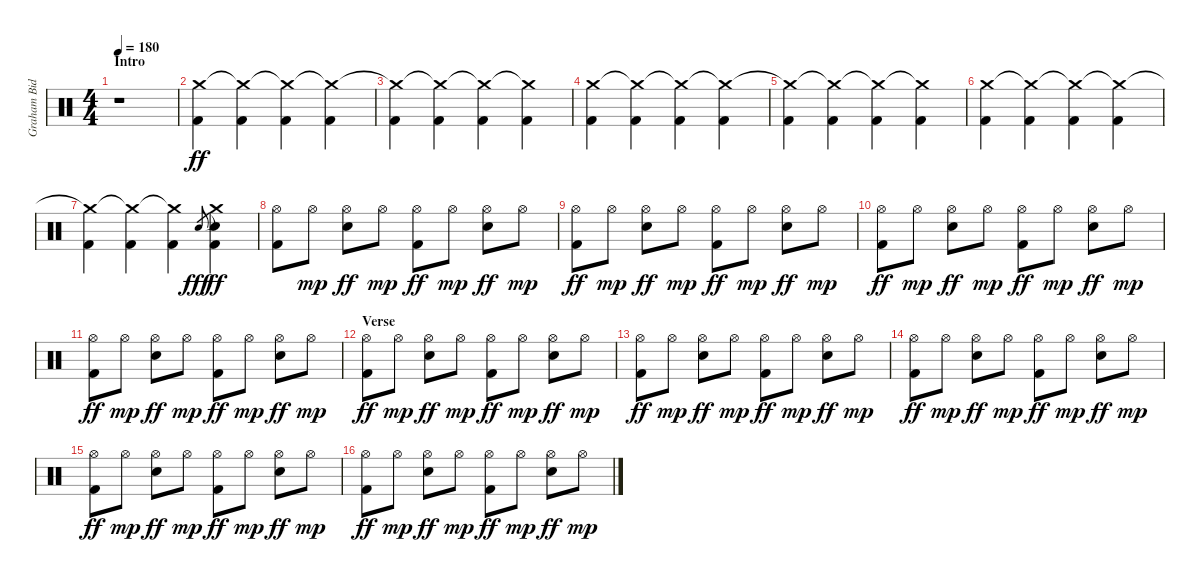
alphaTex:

\track ("Graham Bidstrup" "Graham Bid") {instrument percussion}
\staff {score}
\articulation defaults
\ts (4 4)
\section ("" "Intro")
\tempo 180
\clef neutral
\ks c
r.1{dy ff} |
("Crash medium (hit)" "Kick (hit) 2").4 ("Crash medium (hit)"{t} "Kick (hit) 2").4 ("Crash medium (hit)"{t} "Kick (hit) 2").4 ("Crash medium (hit)"{t} "Kick (hit) 2").4 |
("Crash medium (hit)"{t} "Kick (hit) 2").4 ("Crash medium (hit)"{t} "Kick (hit) 2").4 ("Crash medium (hit)"{t} "Kick (hit) 2").4 ("Crash medium (hit)"{t} "Kick (hit) 2").4 |
("Crash medium (hit)" "Kick (hit) 2").4 ("Crash medium (hit)"{t} "Kick (hit) 2").4 ("Crash medium (hit)"{t} "Kick (hit) 2").4 ("Crash medium (hit)"{t} "Kick (hit) 2").4 |
("Crash medium (hit)"{t} "Kick (hit) 2").4 ("Crash medium (hit)"{t} "Kick (hit) 2").4 ("Crash medium (hit)"{t} "Kick (hit) 2").4 ("Crash medium (hit)"{t} "Kick (hit) 2").4 |
("Crash medium (hit)" "Kick (hit) 2").4 ("Crash medium (hit)"{t} "Kick (hit) 2").4 ("Crash medium (hit)"{t} "Kick (hit) 2").4 ("Crash medium (hit)"{t} "Kick (hit) 2").4 |
("Crash medium (hit)"{t} "Kick (hit) 2").4 ("Crash medium (hit)"{t} "Kick (hit) 2").4 ("Crash medium (hit)"{t} "Kick (hit) 2").4 "Snare (hit) 2".8{gr dy fff} ("Crash medium (hit)"{t} "Snare (hit) 2" "Kick (hit) 2").4{dy ff} |
("Hi-Hat (open)" "Kick (hit) 2").8 "Hi-Hat (open)".8{dy mp} ("Hi-Hat (open)" "Snare (hit) 2").8{dy ff} "Hi-Hat (open)".8{dy mp} ("Hi-Hat (open)" "Kick (hit) 2").8{dy ff} "Hi-Hat (open)".8{dy mp} ("Hi-Hat (open)" "Snare (hit) 2").8{dy ff} "Hi-Hat (open)".8{dy mp} |
("Hi-Hat (open)" "Kick (hit) 2").8{dy ff} "Hi-Hat (open)".8{dy mp} ("Hi-Hat (open)" "Snare (hit) 2").8{dy ff} "Hi-Hat (open)".8{dy mp} ("Hi-Hat (open)" "Kick (hit) 2").8{dy ff} "Hi-Hat (open)".8{dy mp} ("Hi-Hat (open)" "Snare (hit) 2").8{dy ff} "Hi-Hat (open)".8{dy mp} |
("Hi-Hat (open)" "Kick (hit) 2").8{dy ff} "Hi-Hat (open)".8{dy mp} ("Hi-Hat (open)" "Snare (hit) 2").8{dy ff} "Hi-Hat (open)".8{dy mp} ("Hi-Hat (open)" "Kick (hit) 2").8{dy ff} "Hi-Hat (open)".8{dy mp} ("Hi-Hat (open)" "Snare (hit) 2").8{dy ff} "Hi-Hat (open)".8{dy mp} |
("Hi-Hat (open)" "Kick (hit) 2").8{dy ff} "Hi-Hat (open)".8{dy mp} ("Hi-Hat (open)" "Snare (hit) 2").8{dy ff} "Hi-Hat (open)".8{dy mp} ("Hi-Hat (open)" "Kick (hit) 2").8{dy ff} "Hi-Hat (open)".8{dy mp} ("Hi-Hat (open)" "Snare (hit) 2").8{dy ff} "Hi-Hat (open)".8{dy mp} |
\section ("" "Verse")
("Hi-Hat (open)" "Kick (hit) 2").8{dy ff} "Hi-Hat (open)".8{dy mp} ("Hi-Hat (open)" "Snare (hit) 2").8{dy ff} "Hi-Hat (open)".8{dy mp} ("Hi-Hat (open)" "Kick (hit) 2").8{dy ff} "Hi-Hat (open)".8{dy mp} ("Hi-Hat (open)" "Snare (hit) 2").8{dy ff} "Hi-Hat (open)".8{dy mp} |
("Hi-Hat (open)" "Kick (hit) 2").8{dy ff} "Hi-Hat (open)".8{dy mp} ("Hi-Hat (open)" "Snare (hit) 2").8{dy ff} "Hi-Hat (open)".8{dy mp} ("Hi-Hat (open)" "Kick (hit) 2").8{dy ff} "Hi-Hat (open)".8{dy mp} ("Hi-Hat (open)" "Snare (hit) 2").8{dy ff} "Hi-Hat (open)".8{dy mp} |
("Hi-Hat (open)" "Kick (hit) 2").8{dy ff} "Hi-Hat (open)".8{dy mp} ("Hi-Hat (open)" "Snare (hit) 2").8{dy ff} "Hi-Hat (open)".8{dy mp} ("Hi-Hat (open)" "Kick (hit) 2").8{dy ff} "Hi-Hat (open)".8{dy mp} ("Hi-Hat (open)" "Snare (hit) 2").8{dy ff} "Hi-Hat (open)".8{dy mp} |
("Hi-Hat (open)" "Kick (hit) 2").8{dy ff} "Hi-Hat (open)".8{dy mp} ("Hi-Hat (open)" "Snare (hit) 2").8{dy ff} "Hi-Hat (open)".8{dy mp} ("Hi-Hat (open)" "Kick (hit) 2").8{dy ff} "Hi-Hat (open)".8{dy mp} ("Hi-Hat (open)" "Snare (hit) 2").8{dy ff} "Hi-Hat (open)".8{dy mp} |
("Hi-Hat (open)" "Kick (hit) 2").8{dy ff} "Hi-Hat (open)".8{dy mp} ("Hi-Hat (open)" "Snare (hit) 2").8{dy ff} "Hi-Hat (open)".8{dy mp} ("Hi-Hat (open)" "Kick (hit) 2").8{dy ff} "Hi-Hat (open)".8{dy mp} ("Hi-Hat (open)" "Snare (hit) 2").8{dy ff} "Hi-Hat (open)".8{dy mp}
